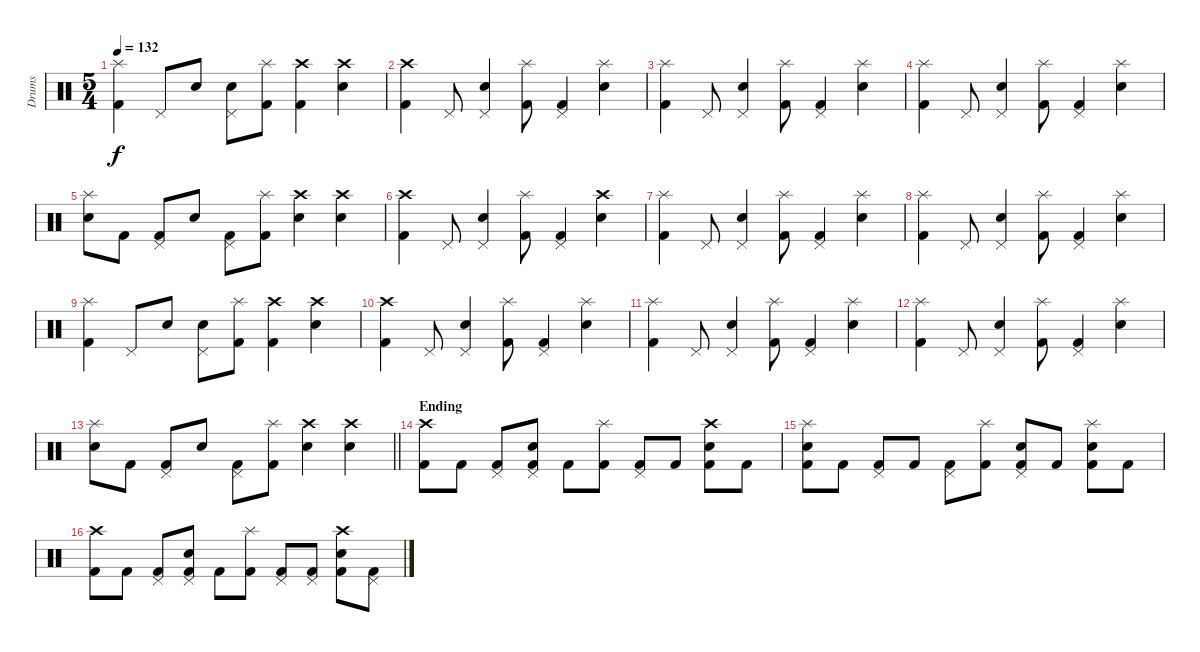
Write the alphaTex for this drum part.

\track ("Drums" "Drums") {instrument percussion}
\staff {score}
\articulation defaults
\ts (5 4)
\tempo 132
\clef neutral
\ks c
("Splash (hit)" "Kick (hit) 2").4{dy f} "Pedal Hi-Hat (hit)".8 "Snare (hit) 2".8 ("Pedal Hi-Hat (hit)" "Snare (hit) 2").8 ("Splash (hit)" "Kick (hit) 2").8 ("Crash high (hit)" "Kick (hit) 2").4 ("Crash high (hit)" "Snare (hit) 2").4 |
("Crash high (hit)" "Kick (hit) 2").4 "Pedal Hi-Hat (hit)".8 ("Pedal Hi-Hat (hit)" "Snare (hit) 2").4 ("Splash (hit)" "Kick (hit) 2").8 ("Pedal Hi-Hat (hit)" "Kick (hit) 2").4 ("Splash (hit)" "Snare (hit) 2").4 |
("Splash (hit)" "Kick (hit) 2").4 "Pedal Hi-Hat (hit)".8 ("Pedal Hi-Hat (hit)" "Snare (hit) 2").4 ("Splash (hit)" "Kick (hit) 2").8 ("Pedal Hi-Hat (hit)" "Kick (hit) 2").4 ("Splash (hit)" "Snare (hit) 2").4 |
("Splash (hit)" "Kick (hit) 2").4 "Pedal Hi-Hat (hit)".8 ("Pedal Hi-Hat (hit)" "Snare (hit) 2").4 ("Splash (hit)" "Kick (hit) 2").8 ("Pedal Hi-Hat (hit)" "Kick (hit) 2").4 ("Splash (hit)" "Snare (hit) 2").4 |
("Splash (hit)" "Snare (hit) 2").8 "Kick (hit) 2".8 ("Pedal Hi-Hat (hit)" "Kick (hit) 2").8 "Snare (hit) 2".8 ("Pedal Hi-Hat (hit)" "Kick (hit) 2").8 ("Splash (hit)" "Kick (hit) 2").8 ("Crash high (hit)" "Snare (hit) 2").4 ("Crash high (hit)" "Snare (hit) 2").4 |
("Crash high (hit)" "Kick (hit) 2").4 "Pedal Hi-Hat (hit)".8 ("Pedal Hi-Hat (hit)" "Snare (hit) 2").4 ("Splash (hit)" "Kick (hit) 2").8 ("Pedal Hi-Hat (hit)" "Kick (hit) 2").4 ("Crash high (hit)" "Snare (hit) 2").4 |
("Splash (hit)" "Kick (hit) 2").4 "Pedal Hi-Hat (hit)".8 ("Pedal Hi-Hat (hit)" "Snare (hit) 2").4 ("Splash (hit)" "Kick (hit) 2").8 ("Pedal Hi-Hat (hit)" "Kick (hit) 2").4 ("Splash (hit)" "Snare (hit) 2").4 |
("Splash (hit)" "Kick (hit) 2").4 "Pedal Hi-Hat (hit)".8 ("Pedal Hi-Hat (hit)" "Snare (hit) 2").4 ("Splash (hit)" "Kick (hit) 2").8 ("Pedal Hi-Hat (hit)" "Kick (hit) 2").4 ("Splash (hit)" "Snare (hit) 2").4 |
("Splash (hit)" "Kick (hit) 2").4 "Pedal Hi-Hat (hit)".8 "Snare (hit) 2".8 ("Pedal Hi-Hat (hit)" "Snare (hit) 2").8 ("Splash (hit)" "Kick (hit) 2").8 ("Crash high (hit)" "Kick (hit) 2").4 ("Crash high (hit)" "Snare (hit) 2").4 |
("Crash high (hit)" "Kick (hit) 2").4 "Pedal Hi-Hat (hit)".8 ("Pedal Hi-Hat (hit)" "Snare (hit) 2").4 ("Splash (hit)" "Kick (hit) 2").8 ("Pedal Hi-Hat (hit)" "Kick (hit) 2").4 ("Splash (hit)" "Snare (hit) 2").4 |
("Splash (hit)" "Kick (hit) 2").4 "Pedal Hi-Hat (hit)".8 ("Pedal Hi-Hat (hit)" "Snare (hit) 2").4 ("Splash (hit)" "Kick (hit) 2").8 ("Pedal Hi-Hat (hit)" "Kick (hit) 2").4 ("Splash (hit)" "Snare (hit) 2").4 |
("Splash (hit)" "Kick (hit) 2").4 "Pedal Hi-Hat (hit)".8 ("Pedal Hi-Hat (hit)" "Snare (hit) 2").4 ("Splash (hit)" "Kick (hit) 2").8 ("Pedal Hi-Hat (hit)" "Kick (hit) 2").4 ("Splash (hit)" "Snare (hit) 2").4 |
\barLineRight lightlight
("Splash (hit)" "Snare (hit) 2").8 "Kick (hit) 2".8 ("Pedal Hi-Hat (hit)" "Kick (hit) 2").8 "Snare (hit) 2".8 ("Pedal Hi-Hat (hit)" "Kick (hit) 2").8 ("Splash (hit)" "Kick (hit) 2").8 ("Crash high (hit)" "Snare (hit) 2").4 ("Crash high (hit)" "Snare (hit) 2").4 |
\section ("" "Ending")
("Crash high (hit)" "Kick (hit) 2").8 "Kick (hit) 2".8 ("Pedal Hi-Hat (hit)" "Kick (hit) 2").8 ("Pedal Hi-Hat (hit)" "Snare (hit) 2" "Kick (hit) 2").8 "Kick (hit) 2".8 ("Splash (hit)" "Kick (hit) 2").8 ("Pedal Hi-Hat (hit)" "Kick (hit) 2").8 "Kick (hit) 2".8 ("Crash high (hit)" "Snare (hit) 2" "Kick (hit) 2").8 "Kick (hit) 2".8 |
("Splash (hit)" "Snare (hit) 2" "Kick (hit) 2").8 "Kick (hit) 2".8 ("Pedal Hi-Hat (hit)" "Kick (hit) 2").8 "Kick (hit) 2".8 ("Pedal Hi-Hat (hit)" "Kick (hit) 2").8 ("Splash (hit)" "Kick (hit) 2").8 ("Pedal Hi-Hat (hit)" "Snare (hit) 2" "Kick (hit) 2").8 "Kick (hit) 2".8 ("Splash (hit)" "Snare (hit) 2" "Kick (hit) 2").8 "Kick (hit) 2".8 |
("Crash high (hit)" "Kick (hit) 2").8 "Kick (hit) 2".8 ("Pedal Hi-Hat (hit)" "Kick (hit) 2").8 ("Pedal Hi-Hat (hit)" "Snare (hit) 2" "Kick (hit) 2").8 "Kick (hit) 2".8 ("Splash (hit)" "Kick (hit) 2").8 ("Pedal Hi-Hat (hit)" "Kick (hit) 2").8 ("Pedal Hi-Hat (hit)" "Kick (hit) 2").8 ("Crash high (hit)" "Snare (hit) 2" "Kick (hit) 2").8 ("Pedal Hi-Hat (hit)" "Kick (hit) 2").8
